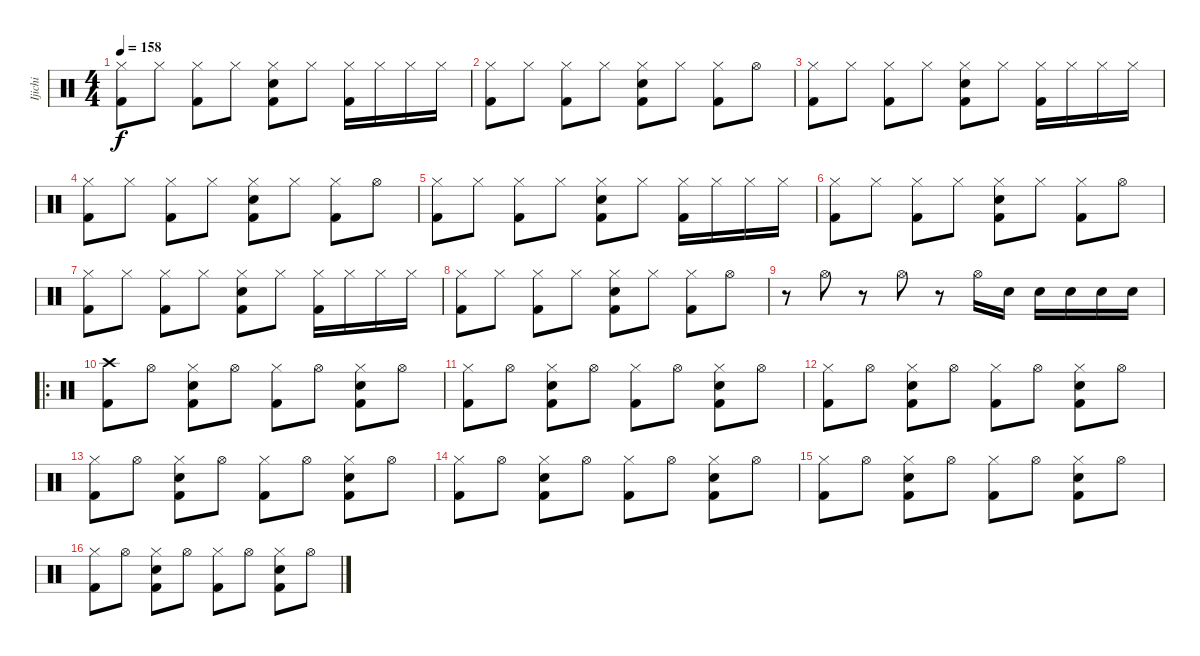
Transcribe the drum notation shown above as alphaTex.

\track ("Ijichi" "Ijichi") {instrument percussion}
\staff {score}
\articulation defaults
\ts (4 4)
\tempo 158
\clef neutral
\ks c
("Hi-Hat (closed)" "Kick (hit) 2").8{dy f} "Hi-Hat (closed)".8 ("Hi-Hat (closed)" "Kick (hit) 2").8 "Hi-Hat (closed)".8 ("Hi-Hat (closed)" "Snare (hit) 2" "Kick (hit) 2").8 "Hi-Hat (closed)".8 ("Hi-Hat (closed)" "Kick (hit) 2").16 "Hi-Hat (closed)".16 "Hi-Hat (closed)".16 "Hi-Hat (closed)".16 |
("Hi-Hat (closed)" "Kick (hit) 2").8 "Hi-Hat (closed)".8 ("Hi-Hat (closed)" "Kick (hit) 2").8 "Hi-Hat (closed)".8 ("Hi-Hat (closed)" "Snare (hit) 2" "Kick (hit) 2").8 "Hi-Hat (closed)".8 ("Hi-Hat (closed)" "Kick (hit) 2").8 "Hi-Hat (open)".8 |
("Hi-Hat (closed)" "Kick (hit) 2").8 "Hi-Hat (closed)".8 ("Hi-Hat (closed)" "Kick (hit) 2").8 "Hi-Hat (closed)".8 ("Hi-Hat (closed)" "Snare (hit) 2" "Kick (hit) 2").8 "Hi-Hat (closed)".8 ("Hi-Hat (closed)" "Kick (hit) 2").16 "Hi-Hat (closed)".16 "Hi-Hat (closed)".16 "Hi-Hat (closed)".16 |
("Hi-Hat (closed)" "Kick (hit) 2").8 "Hi-Hat (closed)".8 ("Hi-Hat (closed)" "Kick (hit) 2").8 "Hi-Hat (closed)".8 ("Hi-Hat (closed)" "Snare (hit) 2" "Kick (hit) 2").8 "Hi-Hat (closed)".8 ("Hi-Hat (closed)" "Kick (hit) 2").8 "Hi-Hat (open)".8 |
("Hi-Hat (closed)" "Kick (hit) 2").8 "Hi-Hat (closed)".8 ("Hi-Hat (closed)" "Kick (hit) 2").8 "Hi-Hat (closed)".8 ("Hi-Hat (closed)" "Snare (hit) 2" "Kick (hit) 2").8 "Hi-Hat (closed)".8 ("Hi-Hat (closed)" "Kick (hit) 2").16 "Hi-Hat (closed)".16 "Hi-Hat (closed)".16 "Hi-Hat (closed)".16 |
("Hi-Hat (closed)" "Kick (hit) 2").8 "Hi-Hat (closed)".8 ("Hi-Hat (closed)" "Kick (hit) 2").8 "Hi-Hat (closed)".8 ("Hi-Hat (closed)" "Snare (hit) 2" "Kick (hit) 2").8 "Hi-Hat (closed)".8 ("Hi-Hat (closed)" "Kick (hit) 2").8 "Hi-Hat (open)".8 |
("Hi-Hat (closed)" "Kick (hit) 2").8 "Hi-Hat (closed)".8 ("Hi-Hat (closed)" "Kick (hit) 2").8 "Hi-Hat (closed)".8 ("Hi-Hat (closed)" "Snare (hit) 2" "Kick (hit) 2").8 "Hi-Hat (closed)".8 ("Hi-Hat (closed)" "Kick (hit) 2").16 "Hi-Hat (closed)".16 "Hi-Hat (closed)".16 "Hi-Hat (closed)".16 |
("Hi-Hat (closed)" "Kick (hit) 2").8 "Hi-Hat (closed)".8 ("Hi-Hat (closed)" "Kick (hit) 2").8 "Hi-Hat (closed)".8 ("Hi-Hat (closed)" "Snare (hit) 2" "Kick (hit) 2").8 "Hi-Hat (closed)".8 ("Hi-Hat (closed)" "Kick (hit) 2").8 "Hi-Hat (open)".8 |
r.8 "Hi-Hat (open)".8 r.8 "Hi-Hat (open)".8 r.8 "Hi-Hat (open)".16 "Snare (hit) 2".16 "Snare (hit) 2".16 "Snare (hit) 2".16 "Snare (hit) 2".16 "Snare (hit) 2".16 |
\ro
("Crash high (hit)" "Kick (hit) 2").8 "Hi-Hat (open)".8 ("Hi-Hat (closed)" "Snare (hit) 2" "Kick (hit) 2").8 "Hi-Hat (open)".8 ("Hi-Hat (closed)" "Kick (hit) 2").8 "Hi-Hat (open)".8 ("Hi-Hat (closed)" "Snare (hit) 2" "Kick (hit) 2").8 "Hi-Hat (open)".8 |
("Hi-Hat (closed)" "Kick (hit) 2").8 "Hi-Hat (open)".8 ("Hi-Hat (closed)" "Snare (hit) 2" "Kick (hit) 2").8 "Hi-Hat (open)".8 ("Hi-Hat (closed)" "Kick (hit) 2").8 "Hi-Hat (open)".8 ("Hi-Hat (closed)" "Snare (hit) 2" "Kick (hit) 2").8 "Hi-Hat (open)".8 |
("Hi-Hat (closed)" "Kick (hit) 2").8 "Hi-Hat (open)".8 ("Hi-Hat (closed)" "Snare (hit) 2" "Kick (hit) 2").8 "Hi-Hat (open)".8 ("Hi-Hat (closed)" "Kick (hit) 2").8 "Hi-Hat (open)".8 ("Hi-Hat (closed)" "Snare (hit) 2" "Kick (hit) 2").8 "Hi-Hat (open)".8 |
("Hi-Hat (closed)" "Kick (hit) 2").8 "Hi-Hat (open)".8 ("Hi-Hat (closed)" "Snare (hit) 2" "Kick (hit) 2").8 "Hi-Hat (open)".8 ("Hi-Hat (closed)" "Kick (hit) 2").8 "Hi-Hat (open)".8 ("Hi-Hat (closed)" "Snare (hit) 2" "Kick (hit) 2").8 "Hi-Hat (open)".8 |
("Hi-Hat (closed)" "Kick (hit) 2").8 "Hi-Hat (open)".8 ("Hi-Hat (closed)" "Snare (hit) 2" "Kick (hit) 2").8 "Hi-Hat (open)".8 ("Hi-Hat (closed)" "Kick (hit) 2").8 "Hi-Hat (open)".8 ("Hi-Hat (closed)" "Snare (hit) 2" "Kick (hit) 2").8 "Hi-Hat (open)".8 |
("Hi-Hat (closed)" "Kick (hit) 2").8 "Hi-Hat (open)".8 ("Hi-Hat (closed)" "Snare (hit) 2" "Kick (hit) 2").8 "Hi-Hat (open)".8 ("Hi-Hat (closed)" "Kick (hit) 2").8 "Hi-Hat (open)".8 ("Hi-Hat (closed)" "Snare (hit) 2" "Kick (hit) 2").8 "Hi-Hat (open)".8 |
("Hi-Hat (closed)" "Kick (hit) 2").8 "Hi-Hat (open)".8 ("Hi-Hat (closed)" "Snare (hit) 2" "Kick (hit) 2").8 "Hi-Hat (open)".8 ("Hi-Hat (closed)" "Kick (hit) 2").8 "Hi-Hat (open)".8 ("Hi-Hat (closed)" "Snare (hit) 2" "Kick (hit) 2").8 "Hi-Hat (open)".8
